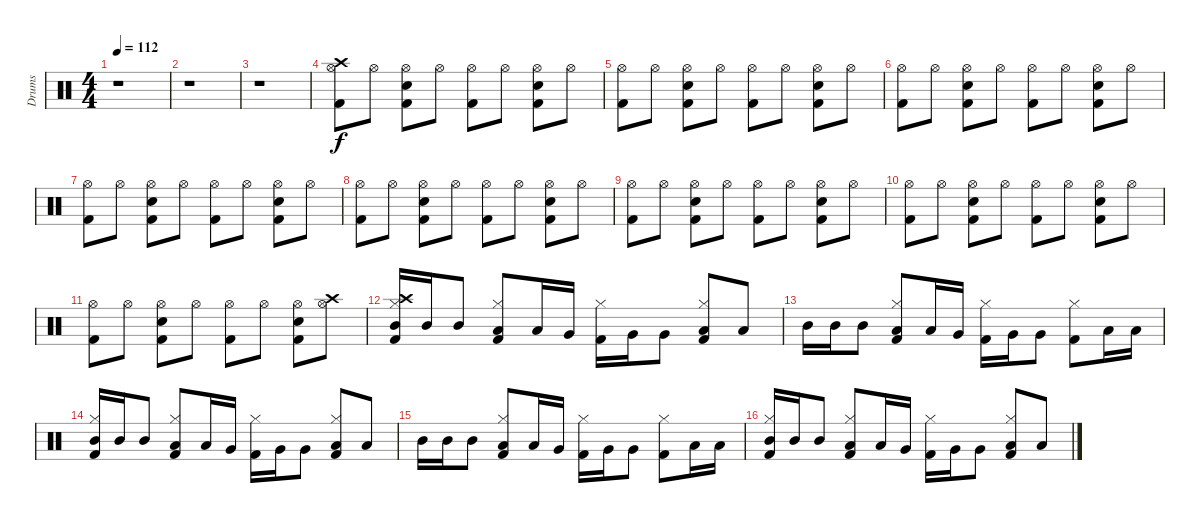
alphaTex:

\track ("Drums" "Drums") {instrument percussion}
\staff {score}
\articulation defaults
\ts (4 4)
\tempo 112
\clef neutral
\ks c
r.1{dy f} |
r.1 |
r.1 |
("Kick (hit) 2" "Hi-Hat (open)" "Crash high (hit)").8 "Hi-Hat (open)".8 ("Snare (hit) 2" "Kick (hit) 2" "Hi-Hat (open)").8 "Hi-Hat (open)".8 ("Hi-Hat (open)" "Kick (hit) 2").8 "Hi-Hat (open)".8 ("Snare (hit) 2" "Kick (hit) 2" "Hi-Hat (open)").8 "Hi-Hat (open)".8 |
("Kick (hit) 2" "Hi-Hat (open)").8 "Hi-Hat (open)".8 ("Kick (hit) 2" "Hi-Hat (open)" "Snare (hit) 2").8 "Hi-Hat (open)".8 ("Kick (hit) 2" "Hi-Hat (open)").8 "Hi-Hat (open)".8 ("Hi-Hat (open)" "Kick (hit) 2" "Snare (hit) 2").8 "Hi-Hat (open)".8 |
("Kick (hit) 2" "Hi-Hat (open)").8 "Hi-Hat (open)".8 ("Kick (hit) 2" "Hi-Hat (open)" "Snare (hit) 2").8 "Hi-Hat (open)".8 ("Kick (hit) 2" "Hi-Hat (open)").8 "Hi-Hat (open)".8 ("Hi-Hat (open)" "Kick (hit) 2" "Snare (hit) 2").8 "Hi-Hat (open)".8 |
("Kick (hit) 2" "Hi-Hat (open)").8 "Hi-Hat (open)".8 ("Kick (hit) 2" "Hi-Hat (open)" "Snare (hit) 2").8 "Hi-Hat (open)".8 ("Kick (hit) 2" "Hi-Hat (open)").8 "Hi-Hat (open)".8 ("Hi-Hat (open)" "Kick (hit) 2" "Snare (hit) 2").8 "Hi-Hat (open)".8 |
("Kick (hit) 2" "Hi-Hat (open)").8 "Hi-Hat (open)".8 ("Kick (hit) 2" "Hi-Hat (open)" "Snare (hit) 2").8 "Hi-Hat (open)".8 ("Kick (hit) 2" "Hi-Hat (open)").8 "Hi-Hat (open)".8 ("Hi-Hat (open)" "Kick (hit) 2" "Snare (hit) 2").8 "Hi-Hat (open)".8 |
("Kick (hit) 2" "Hi-Hat (open)").8 "Hi-Hat (open)".8 ("Kick (hit) 2" "Hi-Hat (open)" "Snare (hit) 2").8 "Hi-Hat (open)".8 ("Kick (hit) 2" "Hi-Hat (open)").8 "Hi-Hat (open)".8 ("Hi-Hat (open)" "Kick (hit) 2" "Snare (hit) 2").8 "Hi-Hat (open)".8 |
("Kick (hit) 2" "Hi-Hat (open)").8 "Hi-Hat (open)".8 ("Kick (hit) 2" "Hi-Hat (open)" "Snare (hit) 2").8 "Hi-Hat (open)".8 ("Kick (hit) 2" "Hi-Hat (open)").8 "Hi-Hat (open)".8 ("Hi-Hat (open)" "Kick (hit) 2" "Snare (hit) 2").8 "Hi-Hat (open)".8 |
("Kick (hit) 2" "Hi-Hat (open)").8 "Hi-Hat (open)".8 ("Kick (hit) 2" "Hi-Hat (open)" "Snare (hit) 2").8 "Hi-Hat (open)".8 ("Kick (hit) 2" "Hi-Hat (open)").8 "Hi-Hat (open)".8 ("Hi-Hat (open)" "Kick (hit) 2" "Snare (hit) 2").8 ("Hi-Hat (open)" "Crash high (hit)").8 |
("Crash high (hit)" "Hi-Hat (closed)" "Mid Tom (hit)" "Kick (hit) 2").16 "Mid Tom (hit)".16 "Mid Tom (hit)".8 ("Kick (hit) 2" "Hi-Hat (closed)" "Low Tom (hit)").8 "Low Tom (hit)".16 "Very Low Tom (hit)".16 ("Kick (hit) 2" "Hi-Hat (closed)").16 "Very Low Tom (hit)".16 "Very Low Tom (hit)".8 ("Hi-Hat (closed)" "Kick (hit) 2" "Low Floor Tom (hit)").8 "Low Floor Tom (hit)".8 |
"Mid Tom (hit)".16 "Mid Tom (hit)".16 "Mid Tom (hit)".8 ("Hi-Hat (closed)" "Kick (hit) 2" "Low Tom (hit)").8 "Low Tom (hit)".16 "Very Low Tom (hit)".16 ("Kick (hit) 2" "Hi-Hat (closed)").16 "Very Low Tom (hit)".16 "Very Low Tom (hit)".8 ("Kick (hit) 2" "Hi-Hat (closed)").8 "Low Floor Tom (hit)".16 "Low Floor Tom (hit)".16 |
("Hi-Hat (closed)" "Kick (hit) 2" "Mid Tom (hit)").16 "Mid Tom (hit)".16 "Mid Tom (hit)".8 ("Hi-Hat (closed)" "Low Tom (hit)" "Kick (hit) 2").8 "Low Tom (hit)".16 "Very Low Tom (hit)".16 ("Kick (hit) 2" "Hi-Hat (closed)").16 "Very Low Tom (hit)".16 "Very Low Tom (hit)".8 ("Low Floor Tom (hit)" "Kick (hit) 2" "Hi-Hat (closed)").8 "Low Floor Tom (hit)".8 |
"Mid Tom (hit)".16 "Mid Tom (hit)".16 "Mid Tom (hit)".8 ("Hi-Hat (closed)" "Kick (hit) 2" "Low Tom (hit)").8 "Low Tom (hit)".16 "Very Low Tom (hit)".16 ("Kick (hit) 2" "Hi-Hat (closed)").16 "Very Low Tom (hit)".16 "Very Low Tom (hit)".8 ("Kick (hit) 2" "Hi-Hat (closed)").8 "Low Floor Tom (hit)".16 "Low Floor Tom (hit)".16 |
("Hi-Hat (closed)" "Kick (hit) 2" "Mid Tom (hit)").16 "Mid Tom (hit)".16 "Mid Tom (hit)".8 ("Hi-Hat (closed)" "Low Tom (hit)" "Kick (hit) 2").8 "Low Tom (hit)".16 "Very Low Tom (hit)".16 ("Kick (hit) 2" "Hi-Hat (closed)").16 "Very Low Tom (hit)".16 "Very Low Tom (hit)".8 ("Low Floor Tom (hit)" "Kick (hit) 2" "Hi-Hat (closed)").8 "Low Floor Tom (hit)".8
